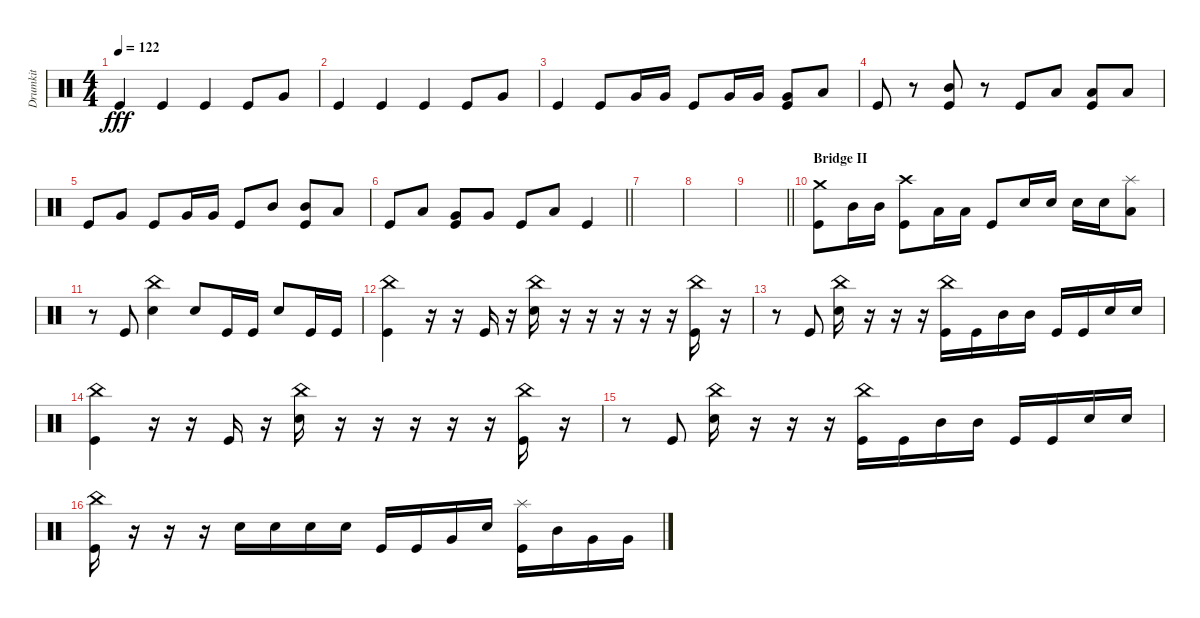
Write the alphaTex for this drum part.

\track ("Drumkit" "Drumkit") {mute instrument percussion}
\staff {score}
\articulation defaults
\ts (4 4)
\tempo 122
\clef neutral
\ks c "Kick (hit)".4{dy fff} "Kick (hit)".4 "Kick (hit)".4 "Kick (hit)".8 "Very Low Tom (hit)".8
|
"Kick (hit)".4 "Kick (hit)".4 "Kick (hit)".4 "Kick (hit)".8 "Very Low Tom (hit)".8 |
"Kick (hit)".4 "Kick (hit)".8 "Very Low Tom (hit)".16 "Very Low Tom (hit)".16 "Kick (hit)".8 "Very Low Tom (hit)".16 "Very Low Tom (hit)".16 ("Kick (hit)" "Very Low Tom (hit)").8 "Low Floor Tom (hit)".8 |
"Kick (hit)".8 r.8 ("Kick (hit)" "Mid Tom (hit)").8 r.8 "Kick (hit)".8 "Low Tom (hit)".8 ("Kick (hit)" "Low Tom (hit)").8 "Low Floor Tom (hit)".8 |
"Kick (hit)".8 "Very Low Tom (hit)".8 "Kick (hit)".8 "Very Low Tom (hit)".16 "Very Low Tom (hit)".16 "Kick (hit)".8 "Mid Tom (hit)".8 ("Kick (hit)" "Mid Tom (hit)").8 "Low Tom (hit)".8 |
\barLineRight lightlight "Kick (hit)".8 "Low Tom (hit)".8
("Kick (hit)" "Very Low Tom (hit)").8 "Very Low Tom (hit)".8 "Kick (hit)".8 "Low Tom (hit)".8 "Kick (hit)".4 |
|
|
\barLineRight lightlight
|
\section ("" "Bridge II")
("Kick (hit)" "Crash medium (hit)").8 "Mid Tom (hit)".16 "Mid Tom (hit)".16 ("Kick (hit)" "Crash high (hit)").8 "Low Tom (hit)".16 "Low Tom (hit)".16 "Kick (hit)".8 "Snare (hit) 2".16 "Snare (hit) 2".16 "Snare (hit) 2".16 "Snare (hit) 2".16 ("Low Floor Tom (hit)" "Splash (hit)").8 |
r.8 "Kick (hit)".8 ("Snare (hit) 2" "China (hit)").4 "Snare (hit) 2".8 "Kick (hit)".16 "Kick (hit)".16 "Snare (hit) 2".8 "Kick (hit)".16 "Kick (hit)".16 |
("Kick (hit)" "China (hit)").4 r.16 r.16 "Kick (hit)".16 r.16 ("China (hit)" "Snare (hit) 2").16 r.16 r.16 r.16 r.16 r.16 ("Kick (hit)" "China (hit)").16 r.16 |
r.8 "Kick (hit)".8 ("Snare (hit) 2" "China (hit)").16 r.16 r.16 r.16 ("Kick (hit)" "China (hit)").16 "Kick (hit)".16 "Mid Tom (hit)".16 "Mid Tom (hit)".16 "Kick (hit)".16 "Kick (hit)".16 "Snare (hit) 2".16 "Snare (hit) 2".16 |
("Kick (hit)" "China (hit)").4 r.16 r.16 "Kick (hit)".16 r.16 ("China (hit)" "Snare (hit) 2").16 r.16 r.16 r.16 r.16 r.16 ("Kick (hit)" "China (hit)").16 r.16 |
r.8 "Kick (hit)".8 ("Snare (hit) 2" "China (hit)").16 r.16 r.16 r.16 ("Kick (hit)" "China (hit)").16 "Kick (hit)".16 "Mid Tom (hit)".16 "Mid Tom (hit)".16 "Kick (hit)".16 "Kick (hit)".16 "Snare (hit) 2".16 "Snare (hit) 2".16 |
("Kick (hit)" "China (hit)").16 r.16 r.16 r.16 "Snare (hit) 2".16 "Snare (hit) 2".16 "Snare (hit) 2".16 "Snare (hit) 2".16 "Kick (hit)".16 "Kick (hit)".16 "Very Low Tom (hit)".16 "Snare (hit) 2".16 ("Kick (hit)" "Splash (hit)").16 "Mid Tom (hit)".16 "Very Low Tom (hit)".16 "Very Low Tom (hit)".16
